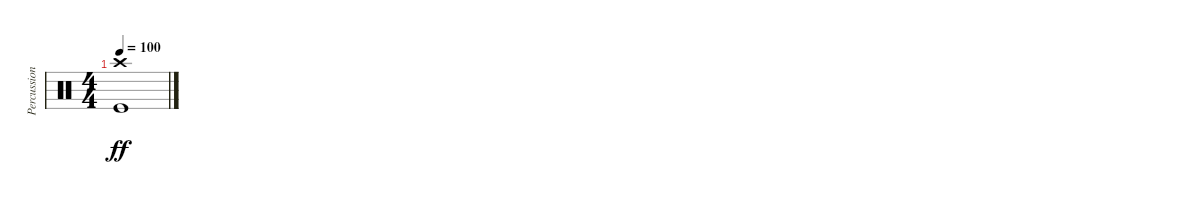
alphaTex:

\track ("Percussion" "Percussion") {instrument percussion}
\staff {score}
\articulation defaults
\ts (4 4)
\tempo 100
\clef neutral
\ks c
("Crash high (hit)" "Kick (hit)").1{dy ff}
